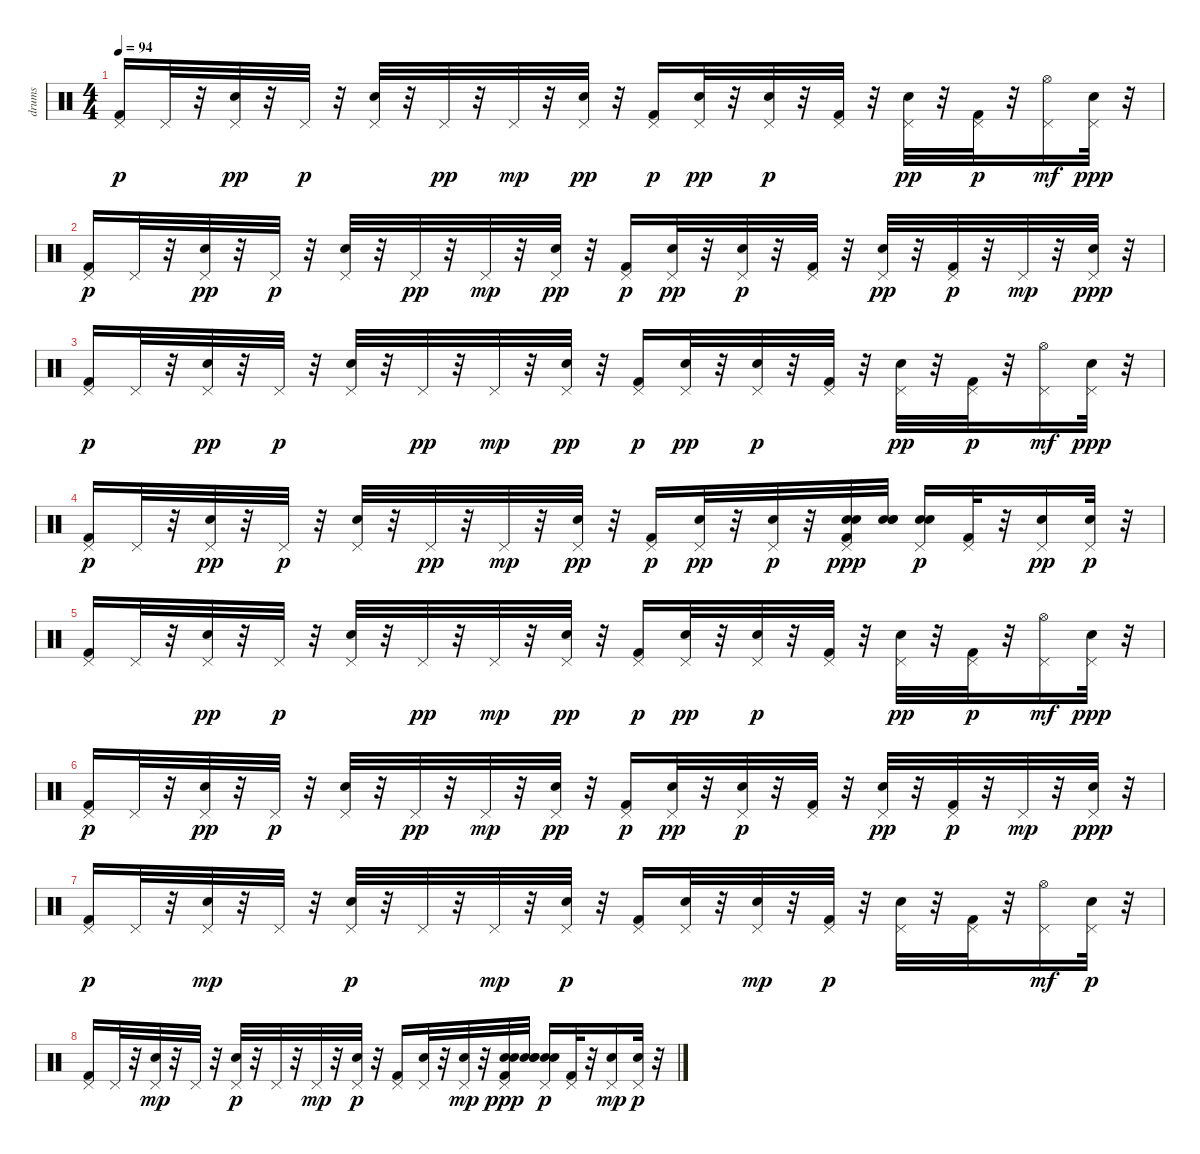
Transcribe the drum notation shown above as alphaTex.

\track ("drums" "drums") {instrument percussion}
\staff {score}
\articulation defaults
\ts (4 4)
\tempo 94
\clef neutral
\ks c
("Pedal Hi-Hat (hit)" "Kick (hit) 2").16{dy p} "Pedal Hi-Hat (hit)".32 r.32 ("Pedal Hi-Hat (hit)" "Electric Snare (hit)").32{dy pp} r.32 "Pedal Hi-Hat (hit)".32{dy p} r.32 ("Pedal Hi-Hat (hit)" "Electric Snare (hit)").32 r.32 "Pedal Hi-Hat (hit)".32{dy pp} r.32 "Pedal Hi-Hat (hit)".32{dy mp} r.32 ("Pedal Hi-Hat (hit)" "Electric Snare (hit)").32{dy pp} r.32 ("Pedal Hi-Hat (hit)" "Kick (hit) 2").16{dy p} ("Pedal Hi-Hat (hit)" "Electric Snare (hit)").32{dy pp} r.32 ("Pedal Hi-Hat (hit)" "Electric Snare (hit)").32{dy p} r.32 ("Pedal Hi-Hat (hit)" "Kick (hit) 2").32 r.32 ("Pedal Hi-Hat (hit)" "Electric Snare (hit)").32{dy pp} r.32 ("Pedal Hi-Hat (hit)" "Kick (hit) 2").32{dy p} r.32 ("Hi-Hat (open)" "Pedal Hi-Hat (hit)").16{dy mf} ("Pedal Hi-Hat (hit)" "Electric Snare (hit)").32{dy ppp} r.32 |
("Pedal Hi-Hat (hit)" "Kick (hit) 2").16{dy p} "Pedal Hi-Hat (hit)".32 r.32 ("Pedal Hi-Hat (hit)" "Electric Snare (hit)").32{dy pp} r.32 "Pedal Hi-Hat (hit)".32{dy p} r.32 ("Pedal Hi-Hat (hit)" "Electric Snare (hit)").32 r.32 "Pedal Hi-Hat (hit)".32{dy pp} r.32 "Pedal Hi-Hat (hit)".32{dy mp} r.32 ("Pedal Hi-Hat (hit)" "Electric Snare (hit)").32{dy pp} r.32 ("Pedal Hi-Hat (hit)" "Kick (hit) 2").16{dy p} ("Pedal Hi-Hat (hit)" "Electric Snare (hit)").32{dy pp} r.32 ("Pedal Hi-Hat (hit)" "Electric Snare (hit)").32{dy p} r.32 ("Pedal Hi-Hat (hit)" "Kick (hit) 2").32 r.32 ("Pedal Hi-Hat (hit)" "Electric Snare (hit)").32{dy pp} r.32 ("Pedal Hi-Hat (hit)" "Kick (hit) 2").32{dy p} r.32 "Pedal Hi-Hat (hit)".32{dy mp} r.32 ("Pedal Hi-Hat (hit)" "Electric Snare (hit)").32{dy ppp} r.32 |
("Pedal Hi-Hat (hit)" "Kick (hit) 2").16{dy p} "Pedal Hi-Hat (hit)".32 r.32 ("Pedal Hi-Hat (hit)" "Electric Snare (hit)").32{dy pp} r.32 "Pedal Hi-Hat (hit)".32{dy p} r.32 ("Pedal Hi-Hat (hit)" "Electric Snare (hit)").32 r.32 "Pedal Hi-Hat (hit)".32{dy pp} r.32 "Pedal Hi-Hat (hit)".32{dy mp} r.32 ("Pedal Hi-Hat (hit)" "Electric Snare (hit)").32{dy pp} r.32 ("Pedal Hi-Hat (hit)" "Kick (hit) 2").16{dy p} ("Pedal Hi-Hat (hit)" "Electric Snare (hit)").32{dy pp} r.32 ("Pedal Hi-Hat (hit)" "Electric Snare (hit)").32{dy p} r.32 ("Pedal Hi-Hat (hit)" "Kick (hit) 2").32 r.32 ("Pedal Hi-Hat (hit)" "Electric Snare (hit)").32{dy pp} r.32 ("Pedal Hi-Hat (hit)" "Kick (hit) 2").32{dy p} r.32 ("Hi-Hat (open)" "Pedal Hi-Hat (hit)").16{dy mf} ("Pedal Hi-Hat (hit)" "Electric Snare (hit)").32{dy ppp} r.32 |
("Pedal Hi-Hat (hit)" "Kick (hit) 2").16{dy p} "Pedal Hi-Hat (hit)".32 r.32 ("Pedal Hi-Hat (hit)" "Electric Snare (hit)").32{dy pp} r.32 "Pedal Hi-Hat (hit)".32{dy p} r.32 ("Pedal Hi-Hat (hit)" "Electric Snare (hit)").32 r.32 "Pedal Hi-Hat (hit)".32{dy pp} r.32 "Pedal Hi-Hat (hit)".32{dy mp} r.32 ("Pedal Hi-Hat (hit)" "Electric Snare (hit)").32{dy pp} r.32 ("Pedal Hi-Hat (hit)" "Kick (hit) 2").16{dy p} ("Pedal Hi-Hat (hit)" "Electric Snare (hit)").32{dy pp} r.32 ("Pedal Hi-Hat (hit)" "Electric Snare (hit)").32{dy p} r.32 ("Pedal Hi-Hat (hit)" "Snare (hit) 2" "Kick (hit) 2" "Snare (hit) 2").32{dy ppp balance 0} ("Snare (hit) 2" "Snare (hit) 2" "Snare (hit) 2").32 ("Snare (hit) 2" "Pedal Hi-Hat (hit)" "Snare (hit) 2").16{dy p} ("Pedal Hi-Hat (hit)" "Kick (hit) 2").32 r.32 ("Pedal Hi-Hat (hit)" "Snare (hit) 2").16{dy pp} ("Electric Snare (hit)" "Pedal Hi-Hat (hit)").32{dy p} r.32 |
("Pedal Hi-Hat (hit)" "Kick (hit) 2").16 "Pedal Hi-Hat (hit)".32 r.32 ("Pedal Hi-Hat (hit)" "Electric Snare (hit)").32{dy pp} r.32 "Pedal Hi-Hat (hit)".32{dy p} r.32 ("Pedal Hi-Hat (hit)" "Electric Snare (hit)").32 r.32 "Pedal Hi-Hat (hit)".32{dy pp} r.32 "Pedal Hi-Hat (hit)".32{dy mp} r.32 ("Pedal Hi-Hat (hit)" "Electric Snare (hit)").32{dy pp} r.32 ("Pedal Hi-Hat (hit)" "Kick (hit) 2").16{dy p} ("Pedal Hi-Hat (hit)" "Electric Snare (hit)").32{dy pp} r.32 ("Pedal Hi-Hat (hit)" "Electric Snare (hit)").32{dy p} r.32 ("Pedal Hi-Hat (hit)" "Kick (hit) 2").32 r.32 ("Pedal Hi-Hat (hit)" "Electric Snare (hit)").32{dy pp} r.32 ("Pedal Hi-Hat (hit)" "Kick (hit) 2").32{dy p} r.32 ("Hi-Hat (open)" "Pedal Hi-Hat (hit)").16{dy mf} ("Pedal Hi-Hat (hit)" "Electric Snare (hit)").32{dy ppp} r.32 |
("Pedal Hi-Hat (hit)" "Kick (hit) 2").16{dy p} "Pedal Hi-Hat (hit)".32 r.32 ("Pedal Hi-Hat (hit)" "Electric Snare (hit)").32{dy pp} r.32 "Pedal Hi-Hat (hit)".32{dy p} r.32 ("Pedal Hi-Hat (hit)" "Electric Snare (hit)").32 r.32 "Pedal Hi-Hat (hit)".32{dy pp} r.32 "Pedal Hi-Hat (hit)".32{dy mp} r.32 ("Pedal Hi-Hat (hit)" "Electric Snare (hit)").32{dy pp} r.32 ("Pedal Hi-Hat (hit)" "Kick (hit) 2").16{dy p} ("Pedal Hi-Hat (hit)" "Electric Snare (hit)").32{dy pp} r.32 ("Pedal Hi-Hat (hit)" "Electric Snare (hit)").32{dy p} r.32 ("Pedal Hi-Hat (hit)" "Kick (hit) 2").32 r.32 ("Pedal Hi-Hat (hit)" "Electric Snare (hit)").32{dy pp} r.32 ("Pedal Hi-Hat (hit)" "Kick (hit) 2").32{dy p} r.32 "Pedal Hi-Hat (hit)".32{dy mp} r.32 ("Pedal Hi-Hat (hit)" "Electric Snare (hit)").32{dy ppp} r.32 |
("Pedal Hi-Hat (hit)" "Kick (hit) 2").16{dy p} "Pedal Hi-Hat (hit)".32 r.32 ("Electric Snare (hit)" "Pedal Hi-Hat (hit)").32{dy mp} r.32 "Pedal Hi-Hat (hit)".32 r.32 ("Electric Snare (hit)" "Pedal Hi-Hat (hit)").32{dy p} r.32 "Pedal Hi-Hat (hit)".32 r.32 "Pedal Hi-Hat (hit)".32{dy mp} r.32 ("Electric Snare (hit)" "Pedal Hi-Hat (hit)").32{dy p} r.32 ("Pedal Hi-Hat (hit)" "Kick (hit) 2").16 ("Electric Snare (hit)" "Pedal Hi-Hat (hit)").32 r.32 ("Electric Snare (hit)" "Pedal Hi-Hat (hit)").32{dy mp} r.32 ("Pedal Hi-Hat (hit)" "Kick (hit) 2").32{dy p} r.32 ("Electric Snare (hit)" "Pedal Hi-Hat (hit)").32 r.32 ("Pedal Hi-Hat (hit)" "Kick (hit) 2").32 r.32 ("Hi-Hat (open)" "Pedal Hi-Hat (hit)").16{dy mf} ("Electric Snare (hit)" "Pedal Hi-Hat (hit)").32{dy p} r.32 |
("Pedal Hi-Hat (hit)" "Kick (hit) 2").16 "Pedal Hi-Hat (hit)".32 r.32 ("Electric Snare (hit)" "Pedal Hi-Hat (hit)").32{dy mp} r.32 "Pedal Hi-Hat (hit)".32 r.32 ("Electric Snare (hit)" "Pedal Hi-Hat (hit)").32{dy p} r.32 "Pedal Hi-Hat (hit)".32 r.32 "Pedal Hi-Hat (hit)".32{dy mp} r.32 ("Electric Snare (hit)" "Pedal Hi-Hat (hit)").32{dy p} r.32 ("Pedal Hi-Hat (hit)" "Kick (hit) 2").16 ("Electric Snare (hit)" "Pedal Hi-Hat (hit)").32 r.32 ("Electric Snare (hit)" "Pedal Hi-Hat (hit)").32{dy mp} r.32 ("Snare (hit) 2" "Pedal Hi-Hat (hit)" "Kick (hit) 2" "Snare (hit) 2").32{dy ppp balance 0} ("Snare (hit) 2" "Snare (hit) 2" "Snare (hit) 2").32 ("Snare (hit) 2" "Snare (hit) 2" "Pedal Hi-Hat (hit)").16{dy p} ("Pedal Hi-Hat (hit)" "Kick (hit) 2").32{volume 9 balance 8} r.32 ("Snare (hit) 2" "Pedal Hi-Hat (hit)").16{dy mp} ("Electric Snare (hit)" "Pedal Hi-Hat (hit)").32{dy p} r.32
